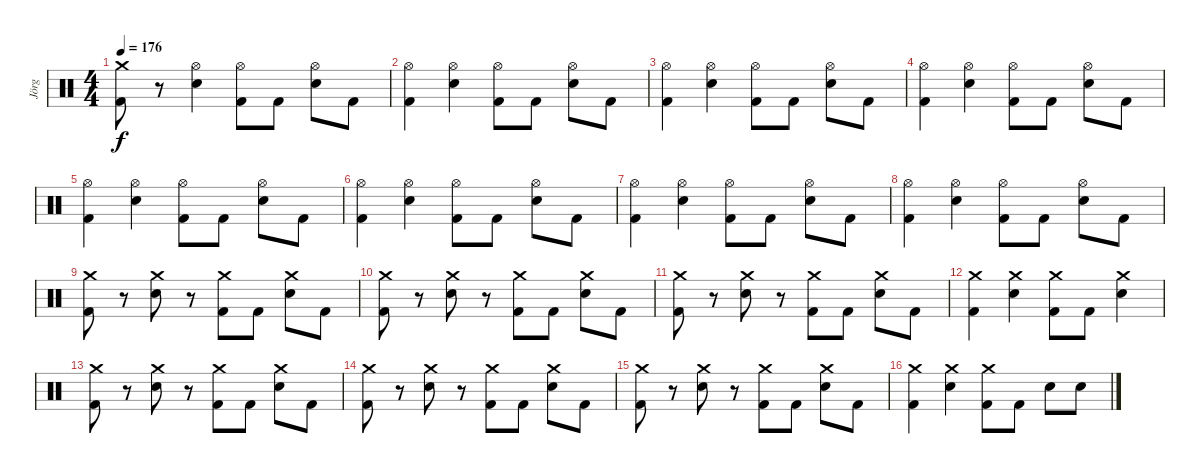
\track ("Jörg" "Jörg") {instrument percussion}
\staff {score}
\articulation defaults
\ts (4 4)
\tempo 176
\clef neutral
\ks c
("Kick (hit) 2" "Crash medium (hit)").8{dy f} r.8 ("Snare (hit) 2" "Hi-Hat (open)").4 ("Kick (hit) 2" "Hi-Hat (open)").8 "Kick (hit) 2".8 ("Snare (hit) 2" "Hi-Hat (open)").8 "Kick (hit) 2".8 |
("Kick (hit) 2" "Hi-Hat (open)").4 ("Snare (hit) 2" "Hi-Hat (open)").4 ("Kick (hit) 2" "Hi-Hat (open)").8 "Kick (hit) 2".8 ("Snare (hit) 2" "Hi-Hat (open)").8 "Kick (hit) 2".8 |
("Kick (hit) 2" "Hi-Hat (open)").4 ("Snare (hit) 2" "Hi-Hat (open)").4 ("Kick (hit) 2" "Hi-Hat (open)").8 "Kick (hit) 2".8 ("Snare (hit) 2" "Hi-Hat (open)").8 "Kick (hit) 2".8 |
("Kick (hit) 2" "Hi-Hat (open)").4 ("Snare (hit) 2" "Hi-Hat (open)").4 ("Kick (hit) 2" "Hi-Hat (open)").8 "Kick (hit) 2".8 ("Snare (hit) 2" "Hi-Hat (open)").8 "Kick (hit) 2".8 |
("Kick (hit) 2" "Hi-Hat (open)").4 ("Snare (hit) 2" "Hi-Hat (open)").4 ("Kick (hit) 2" "Hi-Hat (open)").8 "Kick (hit) 2".8 ("Snare (hit) 2" "Hi-Hat (open)").8 "Kick (hit) 2".8 |
("Kick (hit) 2" "Hi-Hat (open)").4 ("Snare (hit) 2" "Hi-Hat (open)").4 ("Kick (hit) 2" "Hi-Hat (open)").8 "Kick (hit) 2".8 ("Snare (hit) 2" "Hi-Hat (open)").8 "Kick (hit) 2".8 |
("Kick (hit) 2" "Hi-Hat (open)").4 ("Snare (hit) 2" "Hi-Hat (open)").4 ("Kick (hit) 2" "Hi-Hat (open)").8 "Kick (hit) 2".8 ("Snare (hit) 2" "Hi-Hat (open)").8 "Kick (hit) 2".8 |
("Kick (hit) 2" "Hi-Hat (open)").4 ("Snare (hit) 2" "Hi-Hat (open)").4 ("Kick (hit) 2" "Hi-Hat (open)").8 "Kick (hit) 2".8 ("Snare (hit) 2" "Hi-Hat (open)").8 "Kick (hit) 2".8 |
("Crash medium (hit)" "Kick (hit) 2").8 r.8 ("Crash medium (hit)" "Snare (hit) 2").8 r.8 ("Crash medium (hit)" "Kick (hit) 2").8 "Kick (hit) 2".8 ("Crash medium (hit)" "Snare (hit) 2").8 "Kick (hit) 2".8 |
("Crash medium (hit)" "Kick (hit) 2").8 r.8 ("Crash medium (hit)" "Snare (hit) 2").8 r.8 ("Crash medium (hit)" "Kick (hit) 2").8 "Kick (hit) 2".8 ("Crash medium (hit)" "Snare (hit) 2").8 "Kick (hit) 2".8 |
("Crash medium (hit)" "Kick (hit) 2").8 r.8 ("Crash medium (hit)" "Snare (hit) 2").8 r.8 ("Crash medium (hit)" "Kick (hit) 2").8 "Kick (hit) 2".8 ("Crash medium (hit)" "Snare (hit) 2").8 "Kick (hit) 2".8 |
("Kick (hit) 2" "Crash medium (hit)").4 ("Snare (hit) 2" "Crash medium (hit)").4 ("Kick (hit) 2" "Crash medium (hit)").8 "Kick (hit) 2".8 ("Snare (hit) 2" "Crash medium (hit)").4 |
("Crash medium (hit)" "Kick (hit) 2").8 r.8 ("Crash medium (hit)" "Snare (hit) 2").8 r.8 ("Crash medium (hit)" "Kick (hit) 2").8 "Kick (hit) 2".8 ("Crash medium (hit)" "Snare (hit) 2").8 "Kick (hit) 2".8 |
("Crash medium (hit)" "Kick (hit) 2").8 r.8 ("Crash medium (hit)" "Snare (hit) 2").8 r.8 ("Crash medium (hit)" "Kick (hit) 2").8 "Kick (hit) 2".8 ("Crash medium (hit)" "Snare (hit) 2").8 "Kick (hit) 2".8 |
("Crash medium (hit)" "Kick (hit) 2").8 r.8 ("Crash medium (hit)" "Snare (hit) 2").8 r.8 ("Crash medium (hit)" "Kick (hit) 2").8 "Kick (hit) 2".8 ("Crash medium (hit)" "Snare (hit) 2").8 "Kick (hit) 2".8 |
("Kick (hit) 2" "Crash medium (hit)").4 ("Snare (hit) 2" "Crash medium (hit)").4 ("Kick (hit) 2" "Crash medium (hit)").8 "Kick (hit) 2".8 "Snare (hit) 2".8 "Snare (hit) 2".8
